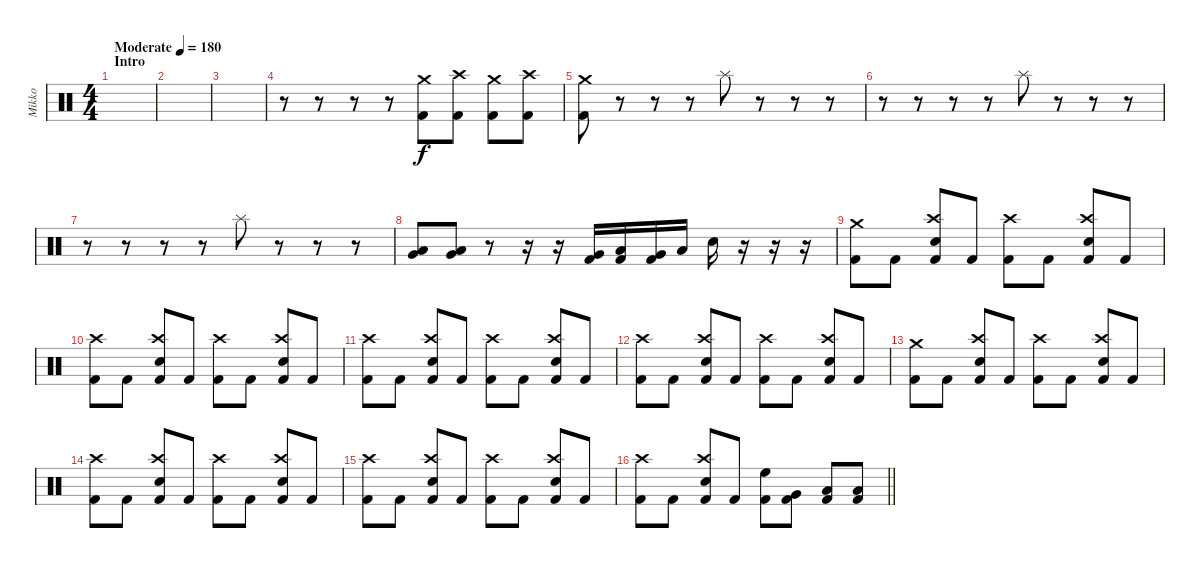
\track ("Mikko" "Mikko") {instrument percussion}
\staff {score}
\articulation defaults
\ts (4 4)
\section ("" "Intro")
\tempo (180 "Moderate")
\clef neutral
\ks c
|
|
|
r.8 r.8 r.8 r.8 ("Crash medium (hit)" "Kick (hit) 2").8 ("Crash high (hit)" "Kick (hit) 2").8 ("Crash medium (hit)" "Kick (hit) 2").8 ("Crash high (hit)" "Kick (hit) 2").8 |
("Crash medium (hit)" "Kick (hit) 2").8 r.8 r.8 r.8 "Splash (hit)".8 r.8 r.8 r.8 |
r.8 r.8 r.8 r.8 "Splash (hit)".8 r.8 r.8 r.8 |
r.8 r.8 r.8 r.8 "Splash (hit)".8 r.8 r.8 r.8 |
("Low Floor Tom (hit)" "Very Low Tom (hit)").8 ("Very Low Tom (hit)" "Low Floor Tom (hit)").8 r.8 r.16 r.16 ("Very Low Tom (hit)" "Kick (hit) 2").16 ("Low Tom (hit)" "Kick (hit) 2").16 ("Very Low Tom (hit)" "Kick (hit) 2").16 "Low Floor Tom (hit)".16 "Electric Snare (hit)".16 r.16 r.16 r.16 |
("Crash medium (hit)" "Kick (hit) 2").8 "Kick (hit) 2".8 ("Crash high (hit)" "Electric Snare (hit)" "Kick (hit) 2").8 "Kick (hit) 2".8 ("Crash high (hit)" "Kick (hit) 2").8 "Kick (hit) 2".8 ("Crash high (hit)" "Electric Snare (hit)" "Kick (hit) 2").8 "Kick (hit) 2".8 |
("Crash high (hit)" "Kick (hit) 2").8 "Kick (hit) 2".8 ("Crash high (hit)" "Electric Snare (hit)" "Kick (hit) 2").8 "Kick (hit) 2".8 ("Crash high (hit)" "Kick (hit) 2").8 "Kick (hit) 2".8 ("Crash high (hit)" "Electric Snare (hit)" "Kick (hit) 2").8 "Kick (hit) 2".8 |
("Crash high (hit)" "Kick (hit) 2").8 "Kick (hit) 2".8 ("Crash high (hit)" "Electric Snare (hit)" "Kick (hit) 2").8 "Kick (hit) 2".8 ("Crash high (hit)" "Kick (hit) 2").8 "Kick (hit) 2".8 ("Crash high (hit)" "Electric Snare (hit)" "Kick (hit) 2").8 "Kick (hit) 2".8 |
("Crash high (hit)" "Kick (hit) 2").8 "Kick (hit) 2".8 ("Crash high (hit)" "Electric Snare (hit)" "Kick (hit) 2").8 "Kick (hit) 2".8 ("Crash high (hit)" "Kick (hit) 2").8 "Kick (hit) 2".8 ("Crash high (hit)" "Electric Snare (hit)" "Kick (hit) 2").8 "Kick (hit) 2".8 |
("Crash medium (hit)" "Kick (hit) 2").8 "Kick (hit) 2".8 ("Crash high (hit)" "Electric Snare (hit)" "Kick (hit) 2").8 "Kick (hit) 2".8 ("Crash high (hit)" "Kick (hit) 2").8 "Kick (hit) 2".8 ("Crash high (hit)" "Electric Snare (hit)" "Kick (hit) 2").8 "Kick (hit) 2".8 |
("Crash high (hit)" "Kick (hit) 2").8 "Kick (hit) 2".8 ("Crash high (hit)" "Electric Snare (hit)" "Kick (hit) 2").8 "Kick (hit) 2".8 ("Crash high (hit)" "Kick (hit) 2").8 "Kick (hit) 2".8 ("Crash high (hit)" "Electric Snare (hit)" "Kick (hit) 2").8 "Kick (hit) 2".8 |
("Crash high (hit)" "Kick (hit) 2").8 "Kick (hit) 2".8 ("Crash high (hit)" "Electric Snare (hit)" "Kick (hit) 2").8 "Kick (hit) 2".8 ("Crash high (hit)" "Kick (hit) 2").8 "Kick (hit) 2".8 ("Crash high (hit)" "Electric Snare (hit)" "Kick (hit) 2").8 "Kick (hit) 2".8 |
\barLineRight lightlight
("Crash high (hit)" "Kick (hit) 2").8 "Kick (hit) 2".8 ("Crash high (hit)" "Electric Snare (hit)" "Kick (hit) 2").8 "Kick (hit) 2".8 ("High Floor Tom (hit)" "Kick (hit) 2").8 ("Very Low Tom (hit)" "Kick (hit) 2").8 ("Low Floor Tom (hit)" "Kick (hit) 2").8 ("Low Tom (hit)" "Kick (hit) 2").8
